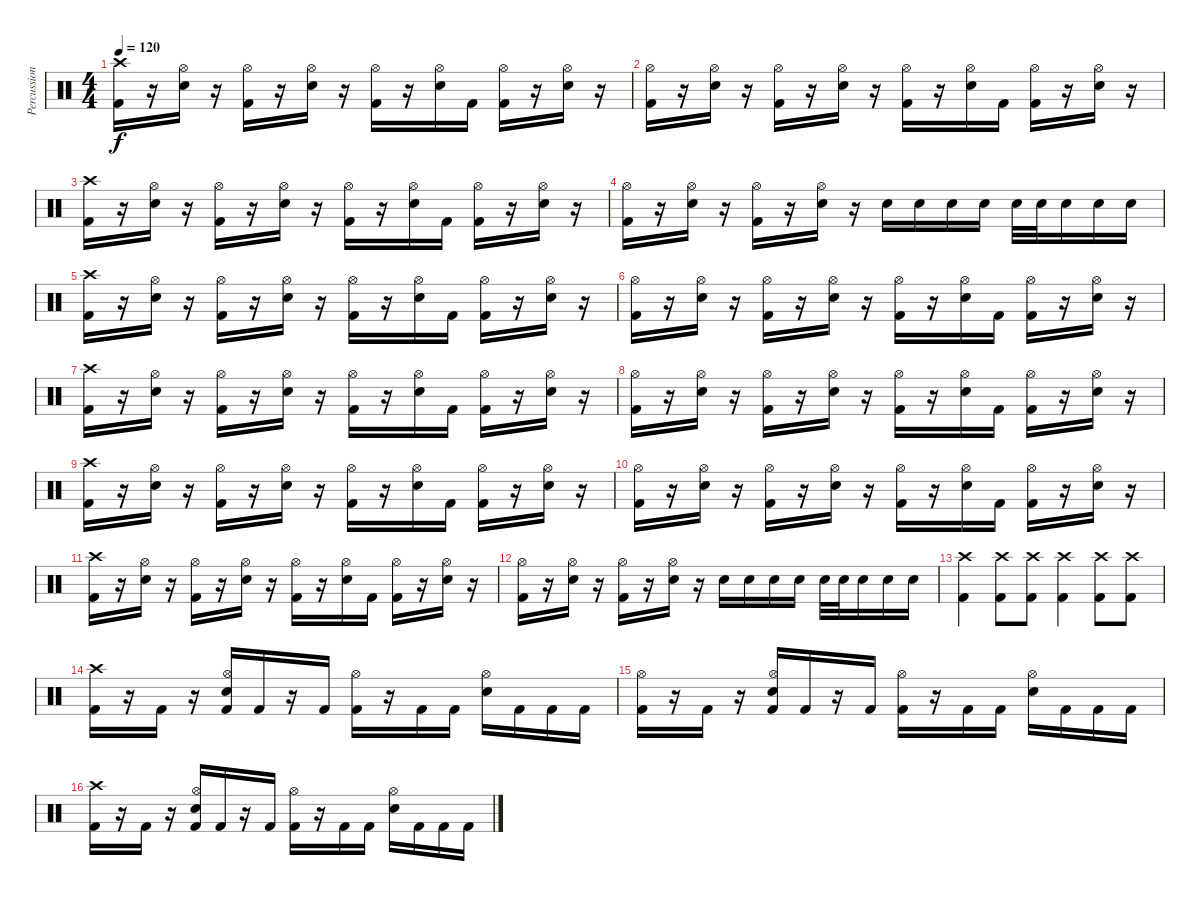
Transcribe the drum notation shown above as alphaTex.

\track ("Percussion" "Percussion") {instrument percussion}
\staff {score}
\articulation defaults
\ts (4 4)
\tempo 120
\clef neutral
\ks c
("Crash high (hit)" "Kick (hit) 2").16{dy f} r.16 ("Hi-Hat (open)" "Electric Snare (hit)").16 r.16 ("Hi-Hat (open)" "Kick (hit) 2").16 r.16 ("Hi-Hat (open)" "Electric Snare (hit)").16 r.16 ("Hi-Hat (open)" "Kick (hit) 2").16 r.16 ("Hi-Hat (open)" "Electric Snare (hit)").16 "Kick (hit) 2".16 ("Hi-Hat (open)" "Kick (hit) 2").16 r.16 ("Hi-Hat (open)" "Electric Snare (hit)").16 r.16 |
("Hi-Hat (open)" "Kick (hit) 2").16 r.16 ("Hi-Hat (open)" "Electric Snare (hit)").16 r.16 ("Hi-Hat (open)" "Kick (hit) 2").16 r.16 ("Hi-Hat (open)" "Electric Snare (hit)").16 r.16 ("Hi-Hat (open)" "Kick (hit) 2").16 r.16 ("Hi-Hat (open)" "Electric Snare (hit)").16 "Kick (hit) 2".16 ("Hi-Hat (open)" "Kick (hit) 2").16 r.16 ("Hi-Hat (open)" "Electric Snare (hit)").16 r.16 |
("Crash high (hit)" "Kick (hit) 2").16 r.16 ("Hi-Hat (open)" "Electric Snare (hit)").16 r.16 ("Hi-Hat (open)" "Kick (hit) 2").16 r.16 ("Hi-Hat (open)" "Electric Snare (hit)").16 r.16 ("Hi-Hat (open)" "Kick (hit) 2").16 r.16 ("Hi-Hat (open)" "Electric Snare (hit)").16 "Kick (hit) 2".16 ("Hi-Hat (open)" "Kick (hit) 2").16 r.16 ("Hi-Hat (open)" "Electric Snare (hit)").16 r.16 |
("Hi-Hat (open)" "Kick (hit) 2").16 r.16 ("Hi-Hat (open)" "Electric Snare (hit)").16 r.16 ("Hi-Hat (open)" "Kick (hit) 2").16 r.16 ("Hi-Hat (open)" "Electric Snare (hit)").16 r.16 "Electric Snare (hit)".16 "Electric Snare (hit)".16 "Electric Snare (hit)".16 "Electric Snare (hit)".16 "Electric Snare (hit)".32 "Electric Snare (hit)".32 "Electric Snare (hit)".16 "Electric Snare (hit)".16 "Electric Snare (hit)".16 |
("Crash high (hit)" "Kick (hit) 2").16 r.16 ("Hi-Hat (open)" "Electric Snare (hit)").16 r.16 ("Hi-Hat (open)" "Kick (hit) 2").16 r.16 ("Hi-Hat (open)" "Electric Snare (hit)").16 r.16 ("Hi-Hat (open)" "Kick (hit) 2").16 r.16 ("Hi-Hat (open)" "Electric Snare (hit)").16 "Kick (hit) 2".16 ("Hi-Hat (open)" "Kick (hit) 2").16 r.16 ("Hi-Hat (open)" "Electric Snare (hit)").16 r.16 |
("Hi-Hat (open)" "Kick (hit) 2").16 r.16 ("Hi-Hat (open)" "Electric Snare (hit)").16 r.16 ("Hi-Hat (open)" "Kick (hit) 2").16 r.16 ("Hi-Hat (open)" "Electric Snare (hit)").16 r.16 ("Hi-Hat (open)" "Kick (hit) 2").16 r.16 ("Hi-Hat (open)" "Electric Snare (hit)").16 "Kick (hit) 2".16 ("Hi-Hat (open)" "Kick (hit) 2").16 r.16 ("Hi-Hat (open)" "Electric Snare (hit)").16 r.16 |
("Crash high (hit)" "Kick (hit) 2").16 r.16 ("Hi-Hat (open)" "Electric Snare (hit)").16 r.16 ("Hi-Hat (open)" "Kick (hit) 2").16 r.16 ("Hi-Hat (open)" "Electric Snare (hit)").16 r.16 ("Hi-Hat (open)" "Kick (hit) 2").16 r.16 ("Hi-Hat (open)" "Electric Snare (hit)").16 "Kick (hit) 2".16 ("Hi-Hat (open)" "Kick (hit) 2").16 r.16 ("Hi-Hat (open)" "Electric Snare (hit)").16 r.16 |
("Hi-Hat (open)" "Kick (hit) 2").16 r.16 ("Hi-Hat (open)" "Electric Snare (hit)").16 r.16 ("Hi-Hat (open)" "Kick (hit) 2").16 r.16 ("Hi-Hat (open)" "Electric Snare (hit)").16 r.16 ("Hi-Hat (open)" "Kick (hit) 2").16 r.16 ("Hi-Hat (open)" "Electric Snare (hit)").16 "Kick (hit) 2".16 ("Hi-Hat (open)" "Kick (hit) 2").16 r.16 ("Hi-Hat (open)" "Electric Snare (hit)").16 r.16 |
("Crash high (hit)" "Kick (hit) 2").16 r.16 ("Hi-Hat (open)" "Electric Snare (hit)").16 r.16 ("Hi-Hat (open)" "Kick (hit) 2").16 r.16 ("Hi-Hat (open)" "Electric Snare (hit)").16 r.16 ("Hi-Hat (open)" "Kick (hit) 2").16 r.16 ("Hi-Hat (open)" "Electric Snare (hit)").16 "Kick (hit) 2".16 ("Hi-Hat (open)" "Kick (hit) 2").16 r.16 ("Hi-Hat (open)" "Electric Snare (hit)").16 r.16 |
("Hi-Hat (open)" "Kick (hit) 2").16 r.16 ("Hi-Hat (open)" "Electric Snare (hit)").16 r.16 ("Hi-Hat (open)" "Kick (hit) 2").16 r.16 ("Hi-Hat (open)" "Electric Snare (hit)").16 r.16 ("Hi-Hat (open)" "Kick (hit) 2").16 r.16 ("Hi-Hat (open)" "Electric Snare (hit)").16 "Kick (hit) 2".16 ("Hi-Hat (open)" "Kick (hit) 2").16 r.16 ("Hi-Hat (open)" "Electric Snare (hit)").16 r.16 |
("Crash high (hit)" "Kick (hit) 2").16 r.16 ("Hi-Hat (open)" "Electric Snare (hit)").16 r.16 ("Hi-Hat (open)" "Kick (hit) 2").16 r.16 ("Hi-Hat (open)" "Electric Snare (hit)").16 r.16 ("Hi-Hat (open)" "Kick (hit) 2").16 r.16 ("Hi-Hat (open)" "Electric Snare (hit)").16 "Kick (hit) 2".16 ("Hi-Hat (open)" "Kick (hit) 2").16 r.16 ("Hi-Hat (open)" "Electric Snare (hit)").16 r.16 |
("Hi-Hat (open)" "Kick (hit) 2").16 r.16 ("Hi-Hat (open)" "Electric Snare (hit)").16 r.16 ("Hi-Hat (open)" "Kick (hit) 2").16 r.16 ("Hi-Hat (open)" "Electric Snare (hit)").16 r.16 "Electric Snare (hit)".16 "Electric Snare (hit)".16 "Electric Snare (hit)".16 "Electric Snare (hit)".16 "Electric Snare (hit)".32 "Electric Snare (hit)".32 "Electric Snare (hit)".16 "Electric Snare (hit)".16 "Electric Snare (hit)".16 |
("Crash high (hit)" "Kick (hit) 2").4 ("Crash high (hit)" "Kick (hit) 2").8 ("Crash high (hit)" "Kick (hit) 2").8 ("Crash high (hit)" "Kick (hit) 2").4 ("Crash high (hit)" "Kick (hit) 2").8 ("Crash high (hit)" "Kick (hit) 2").8 |
("Crash high (hit)" "Kick (hit) 2").16 r.16 "Kick (hit) 2".16 r.16 ("Hi-Hat (open)" "Electric Snare (hit)" "Kick (hit) 2").16 "Kick (hit) 2".16 r.16 "Kick (hit) 2".16 ("Hi-Hat (open)" "Kick (hit) 2").16 r.16 "Kick (hit) 2".16 "Kick (hit) 2".16 ("Hi-Hat (open)" "Electric Snare (hit)").16 "Kick (hit) 2".16 "Kick (hit) 2".16 "Kick (hit) 2".16 |
("Hi-Hat (open)" "Kick (hit) 2").16 r.16 "Kick (hit) 2".16 r.16 ("Hi-Hat (open)" "Electric Snare (hit)" "Kick (hit) 2").16 "Kick (hit) 2".16 r.16 "Kick (hit) 2".16 ("Hi-Hat (open)" "Kick (hit) 2").16 r.16 "Kick (hit) 2".16 "Kick (hit) 2".16 ("Hi-Hat (open)" "Electric Snare (hit)").16 "Kick (hit) 2".16 "Kick (hit) 2".16 "Kick (hit) 2".16 |
("Crash high (hit)" "Kick (hit) 2").16 r.16 "Kick (hit) 2".16 r.16 ("Hi-Hat (open)" "Electric Snare (hit)" "Kick (hit) 2").16 "Kick (hit) 2".16 r.16 "Kick (hit) 2".16 ("Hi-Hat (open)" "Kick (hit) 2").16 r.16 "Kick (hit) 2".16 "Kick (hit) 2".16 ("Hi-Hat (open)" "Electric Snare (hit)").16 "Kick (hit) 2".16 "Kick (hit) 2".16 "Kick (hit) 2".16
